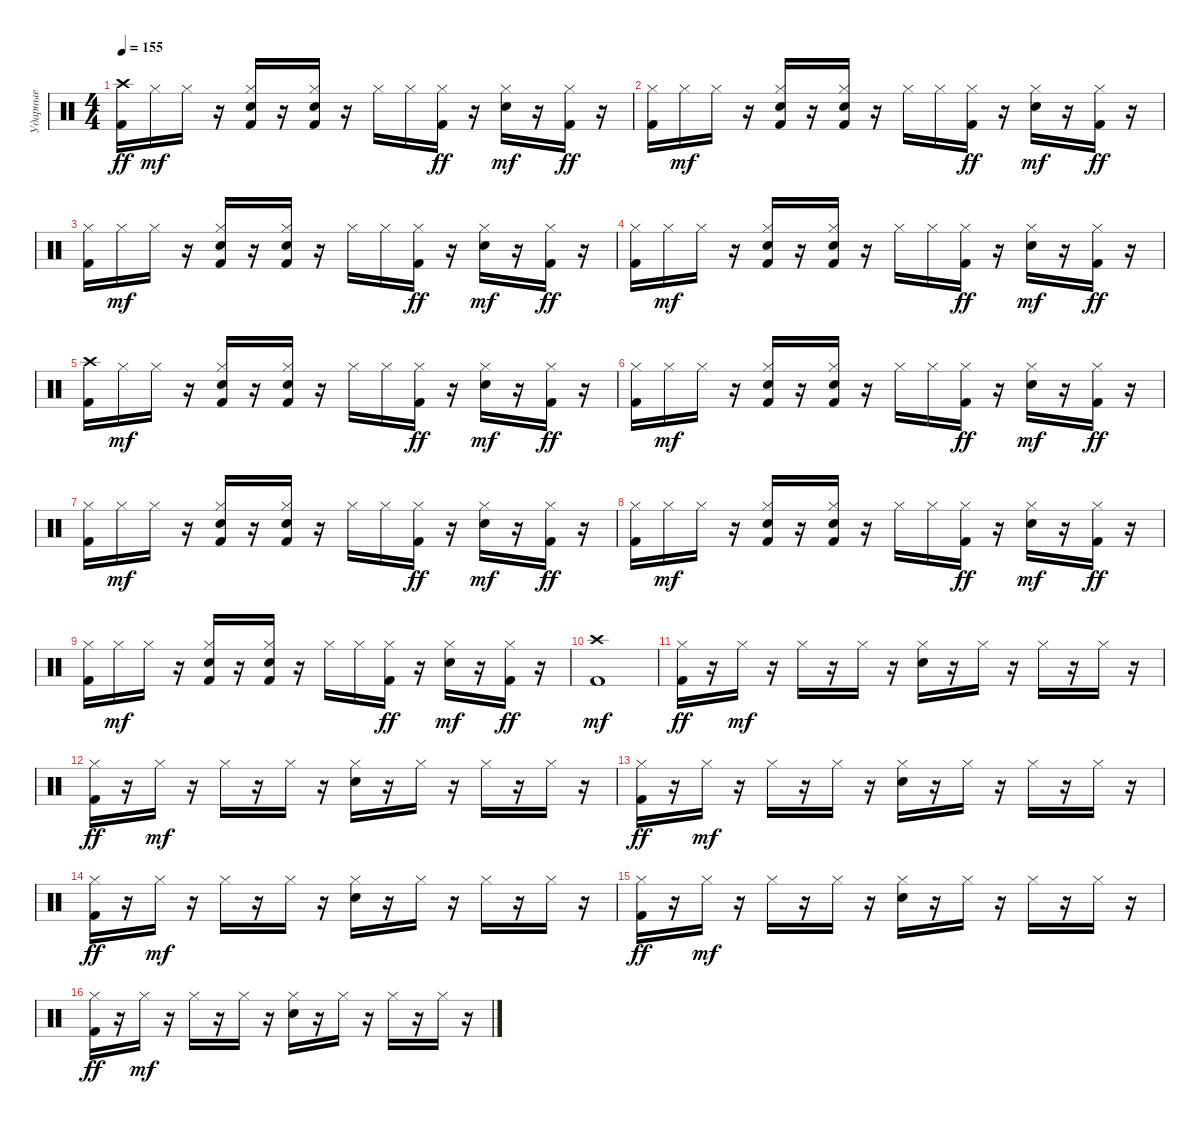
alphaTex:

\track ("Ударные" "Ударные") {instrument percussion}
\staff {score}
\articulation defaults
\ts (4 4)
\tempo 155
\clef neutral
\ks c
("Crash high (hit)" "Kick (hit) 2").16{dy ff} "Hi-Hat (closed)".16{dy mf} "Hi-Hat (closed)".16 r.16 ("Hi-Hat (closed)" "Electric Snare (hit)" "Kick (hit) 2").16 r.16 ("Hi-Hat (closed)" "Electric Snare (hit)" "Kick (hit) 2").16 r.16 "Hi-Hat (closed)".16 "Hi-Hat (closed)".16 ("Hi-Hat (closed)" "Kick (hit) 2").16{dy ff} r.16 ("Hi-Hat (closed)" "Electric Snare (hit)").16{dy mf} r.16 ("Hi-Hat (closed)" "Kick (hit) 2").16{dy ff} r.16 |
("Hi-Hat (closed)" "Kick (hit) 2").16 "Hi-Hat (closed)".16{dy mf} "Hi-Hat (closed)".16 r.16 ("Hi-Hat (closed)" "Electric Snare (hit)" "Kick (hit) 2").16 r.16 ("Hi-Hat (closed)" "Electric Snare (hit)" "Kick (hit) 2").16 r.16 "Hi-Hat (closed)".16 "Hi-Hat (closed)".16 ("Hi-Hat (closed)" "Kick (hit) 2").16{dy ff} r.16 ("Hi-Hat (closed)" "Electric Snare (hit)").16{dy mf} r.16 ("Hi-Hat (closed)" "Kick (hit) 2").16{dy ff} r.16 |
("Hi-Hat (closed)" "Kick (hit) 2").16 "Hi-Hat (closed)".16{dy mf} "Hi-Hat (closed)".16 r.16 ("Hi-Hat (closed)" "Electric Snare (hit)" "Kick (hit) 2").16 r.16 ("Hi-Hat (closed)" "Electric Snare (hit)" "Kick (hit) 2").16 r.16 "Hi-Hat (closed)".16 "Hi-Hat (closed)".16 ("Hi-Hat (closed)" "Kick (hit) 2").16{dy ff} r.16 ("Hi-Hat (closed)" "Electric Snare (hit)").16{dy mf} r.16 ("Hi-Hat (closed)" "Kick (hit) 2").16{dy ff} r.16 |
("Hi-Hat (closed)" "Kick (hit) 2").16 "Hi-Hat (closed)".16{dy mf} "Hi-Hat (closed)".16 r.16 ("Hi-Hat (closed)" "Electric Snare (hit)" "Kick (hit) 2").16 r.16 ("Hi-Hat (closed)" "Electric Snare (hit)" "Kick (hit) 2").16 r.16 "Hi-Hat (closed)".16 "Hi-Hat (closed)".16 ("Hi-Hat (closed)" "Kick (hit) 2").16{dy ff} r.16 ("Hi-Hat (closed)" "Electric Snare (hit)").16{dy mf} r.16 ("Hi-Hat (closed)" "Kick (hit) 2").16{dy ff} r.16 |
("Crash high (hit)" "Kick (hit) 2").16 "Hi-Hat (closed)".16{dy mf} "Hi-Hat (closed)".16 r.16 ("Hi-Hat (closed)" "Electric Snare (hit)" "Kick (hit) 2").16 r.16 ("Hi-Hat (closed)" "Electric Snare (hit)" "Kick (hit) 2").16 r.16 "Hi-Hat (closed)".16 "Hi-Hat (closed)".16 ("Hi-Hat (closed)" "Kick (hit) 2").16{dy ff} r.16 ("Hi-Hat (closed)" "Electric Snare (hit)").16{dy mf} r.16 ("Hi-Hat (closed)" "Kick (hit) 2").16{dy ff} r.16 |
("Hi-Hat (closed)" "Kick (hit) 2").16 "Hi-Hat (closed)".16{dy mf} "Hi-Hat (closed)".16 r.16 ("Hi-Hat (closed)" "Electric Snare (hit)" "Kick (hit) 2").16 r.16 ("Hi-Hat (closed)" "Electric Snare (hit)" "Kick (hit) 2").16 r.16 "Hi-Hat (closed)".16 "Hi-Hat (closed)".16 ("Hi-Hat (closed)" "Kick (hit) 2").16{dy ff} r.16 ("Hi-Hat (closed)" "Electric Snare (hit)").16{dy mf} r.16 ("Hi-Hat (closed)" "Kick (hit) 2").16{dy ff} r.16 |
("Hi-Hat (closed)" "Kick (hit) 2").16 "Hi-Hat (closed)".16{dy mf} "Hi-Hat (closed)".16 r.16 ("Hi-Hat (closed)" "Electric Snare (hit)" "Kick (hit) 2").16 r.16 ("Hi-Hat (closed)" "Electric Snare (hit)" "Kick (hit) 2").16 r.16 "Hi-Hat (closed)".16 "Hi-Hat (closed)".16 ("Hi-Hat (closed)" "Kick (hit) 2").16{dy ff} r.16 ("Hi-Hat (closed)" "Electric Snare (hit)").16{dy mf} r.16 ("Hi-Hat (closed)" "Kick (hit) 2").16{dy ff} r.16 |
("Hi-Hat (closed)" "Kick (hit) 2").16 "Hi-Hat (closed)".16{dy mf} "Hi-Hat (closed)".16 r.16 ("Hi-Hat (closed)" "Electric Snare (hit)" "Kick (hit) 2").16 r.16 ("Hi-Hat (closed)" "Electric Snare (hit)" "Kick (hit) 2").16 r.16 "Hi-Hat (closed)".16 "Hi-Hat (closed)".16 ("Hi-Hat (closed)" "Kick (hit) 2").16{dy ff} r.16 ("Hi-Hat (closed)" "Electric Snare (hit)").16{dy mf} r.16 ("Hi-Hat (closed)" "Kick (hit) 2").16{dy ff} r.16 |
("Hi-Hat (closed)" "Kick (hit) 2").16 "Hi-Hat (closed)".16{dy mf} "Hi-Hat (closed)".16 r.16 ("Hi-Hat (closed)" "Electric Snare (hit)" "Kick (hit) 2").16 r.16 ("Hi-Hat (closed)" "Electric Snare (hit)" "Kick (hit) 2").16 r.16 "Hi-Hat (closed)".16 "Hi-Hat (closed)".16 ("Hi-Hat (closed)" "Kick (hit) 2").16{dy ff} r.16 ("Hi-Hat (closed)" "Electric Snare (hit)").16{dy mf} r.16 ("Hi-Hat (closed)" "Kick (hit) 2").16{dy ff} r.16 |
("Crash high (hit)" "Kick (hit) 2").1{dy mf} |
("Hi-Hat (closed)" "Kick (hit) 2").16{dy ff} r.16 "Hi-Hat (closed)".16{dy mf} r.16 "Hi-Hat (closed)".16 r.16 "Hi-Hat (closed)".16 r.16 ("Hi-Hat (closed)" "Hand Clap (hit)").16 r.16 "Hi-Hat (closed)".16 r.16 "Hi-Hat (closed)".16 r.16 "Hi-Hat (closed)".16 r.16 |
("Hi-Hat (closed)" "Kick (hit) 2").16{dy ff} r.16 "Hi-Hat (closed)".16{dy mf} r.16 "Hi-Hat (closed)".16 r.16 "Hi-Hat (closed)".16 r.16 ("Hi-Hat (closed)" "Hand Clap (hit)").16 r.16 "Hi-Hat (closed)".16 r.16 "Hi-Hat (closed)".16 r.16 "Hi-Hat (closed)".16 r.16 |
("Hi-Hat (closed)" "Kick (hit) 2").16{dy ff} r.16 "Hi-Hat (closed)".16{dy mf} r.16 "Hi-Hat (closed)".16 r.16 "Hi-Hat (closed)".16 r.16 ("Hi-Hat (closed)" "Hand Clap (hit)").16 r.16 "Hi-Hat (closed)".16 r.16 "Hi-Hat (closed)".16 r.16 "Hi-Hat (closed)".16 r.16 |
("Hi-Hat (closed)" "Kick (hit) 2").16{dy ff} r.16 "Hi-Hat (closed)".16{dy mf} r.16 "Hi-Hat (closed)".16 r.16 "Hi-Hat (closed)".16 r.16 ("Hi-Hat (closed)" "Hand Clap (hit)").16 r.16 "Hi-Hat (closed)".16 r.16 "Hi-Hat (closed)".16 r.16 "Hi-Hat (closed)".16 r.16 |
("Hi-Hat (closed)" "Kick (hit) 2").16{dy ff} r.16 "Hi-Hat (closed)".16{dy mf} r.16 "Hi-Hat (closed)".16 r.16 "Hi-Hat (closed)".16 r.16 ("Hi-Hat (closed)" "Hand Clap (hit)").16 r.16 "Hi-Hat (closed)".16 r.16 "Hi-Hat (closed)".16 r.16 "Hi-Hat (closed)".16 r.16 |
("Hi-Hat (closed)" "Kick (hit) 2").16{dy ff} r.16 "Hi-Hat (closed)".16{dy mf} r.16 "Hi-Hat (closed)".16 r.16 "Hi-Hat (closed)".16 r.16 ("Hi-Hat (closed)" "Hand Clap (hit)").16 r.16 "Hi-Hat (closed)".16 r.16 "Hi-Hat (closed)".16 r.16 "Hi-Hat (closed)".16 r.16
